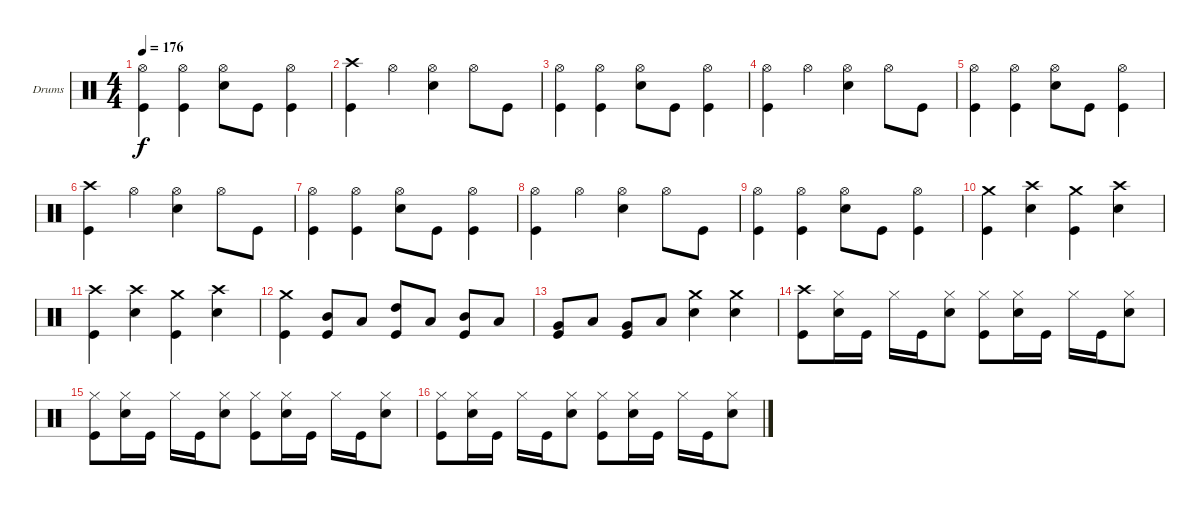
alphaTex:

\bracketExtendMode groupsimilarinstruments
\firstSystemTrackNameOrientation horizontal
\otherSystemsTrackNameOrientation horizontal
\track ("Drumkit" "Drums") {instrument percussion}
\staff {score}
\articulation defaults
\ts (4 4)
\tempo 176
\clef neutral
\ks c
("Hi-Hat (open)" "Kick (hit)").4{dy f} ("Hi-Hat (open)" "Kick (hit)").4 ("Hi-Hat (open)" "Snare (hit) 2").8 "Kick (hit)".8 ("Hi-Hat (open)" "Kick (hit)").4 |
("Crash high (hit)" "Kick (hit)").4 "Hi-Hat (open)".4 ("Hi-Hat (open)" "Snare (hit) 2").4 "Hi-Hat (open)".8 "Kick (hit)".8 |
("Hi-Hat (open)" "Kick (hit)").4 ("Hi-Hat (open)" "Kick (hit)").4 ("Hi-Hat (open)" "Snare (hit) 2").8 "Kick (hit)".8 ("Hi-Hat (open)" "Kick (hit)").4 |
("Hi-Hat (open)" "Kick (hit)").4 "Hi-Hat (open)".4 ("Hi-Hat (open)" "Snare (hit) 2").4 "Hi-Hat (open)".8 "Kick (hit)".8 |
("Hi-Hat (open)" "Kick (hit)").4 ("Hi-Hat (open)" "Kick (hit)").4 ("Hi-Hat (open)" "Snare (hit) 2").8 "Kick (hit)".8 ("Hi-Hat (open)" "Kick (hit)").4 |
("Crash high (hit)" "Kick (hit)").4 "Hi-Hat (open)".4 ("Hi-Hat (open)" "Snare (hit) 2").4 "Hi-Hat (open)".8 "Kick (hit)".8 |
("Hi-Hat (open)" "Kick (hit)").4 ("Hi-Hat (open)" "Kick (hit)").4 ("Hi-Hat (open)" "Snare (hit) 2").8 "Kick (hit)".8 ("Hi-Hat (open)" "Kick (hit)").4 |
("Hi-Hat (open)" "Kick (hit)").4 "Hi-Hat (open)".4 ("Hi-Hat (open)" "Snare (hit) 2").4 "Hi-Hat (open)".8 "Kick (hit)".8 |
("Hi-Hat (open)" "Kick (hit)").4 ("Hi-Hat (open)" "Kick (hit)").4 ("Hi-Hat (open)" "Snare (hit) 2").8 "Kick (hit)".8 ("Hi-Hat (open)" "Kick (hit)").4 |
("Crash medium (hit)" "Kick (hit)").4 ("Crash high (hit)" "Snare (hit) 2").4 ("Crash medium (hit)" "Kick (hit)").4 ("Crash high (hit)" "Snare (hit) 2").4 |
("Crash high (hit)" "Kick (hit)").4 ("Crash high (hit)" "Snare (hit) 2").4 ("Crash medium (hit)" "Kick (hit)").4 ("Crash high (hit)" "Snare (hit) 2").4 |
("Crash medium (hit)" "Kick (hit)").4 ("Mid Tom (hit)" "Kick (hit)").8 "Low Tom (hit)".8 ("High Tom (hit)" "Kick (hit)").8 "Low Tom (hit)".8 ("Mid Tom (hit)" "Kick (hit)").8 "Low Tom (hit)".8 |
("Very Low Tom (hit)" "Kick (hit)").8 "Low Tom (hit)".8 ("Very Low Tom (hit)" "Kick (hit)").8 "Low Tom (hit)".8 ("Crash medium (hit)" "Snare (hit) 2").4 ("Crash medium (hit)" "Snare (hit) 2").4 |
("Crash high (hit)" "Kick (hit)").8 ("Hi-Hat (closed)" "Snare (hit) 2").16 "Kick (hit)".16 "Hi-Hat (closed)".16 "Kick (hit)".16 ("Hi-Hat (closed)" "Snare (hit) 2").8 ("Hi-Hat (closed)" "Kick (hit)").8 ("Hi-Hat (closed)" "Snare (hit) 2").16 "Kick (hit)".16 "Hi-Hat (closed)".16 "Kick (hit)".16 ("Hi-Hat (closed)" "Snare (hit) 2").8 |
("Hi-Hat (closed)" "Kick (hit)").8 ("Hi-Hat (closed)" "Snare (hit) 2").16 "Kick (hit)".16 "Hi-Hat (closed)".16 "Kick (hit)".16 ("Hi-Hat (closed)" "Snare (hit) 2").8 ("Hi-Hat (closed)" "Kick (hit)").8 ("Hi-Hat (closed)" "Snare (hit) 2").16 "Kick (hit)".16 "Hi-Hat (closed)".16 "Kick (hit)".16 ("Hi-Hat (closed)" "Snare (hit) 2").8 |
("Hi-Hat (closed)" "Kick (hit)").8 ("Hi-Hat (closed)" "Snare (hit) 2").16 "Kick (hit)".16 "Hi-Hat (closed)".16 "Kick (hit)".16 ("Hi-Hat (closed)" "Snare (hit) 2").8 ("Hi-Hat (closed)" "Kick (hit)").8 ("Hi-Hat (closed)" "Snare (hit) 2").16 "Kick (hit)".16 "Hi-Hat (closed)".16 "Kick (hit)".16 ("Hi-Hat (closed)" "Snare (hit) 2").8
